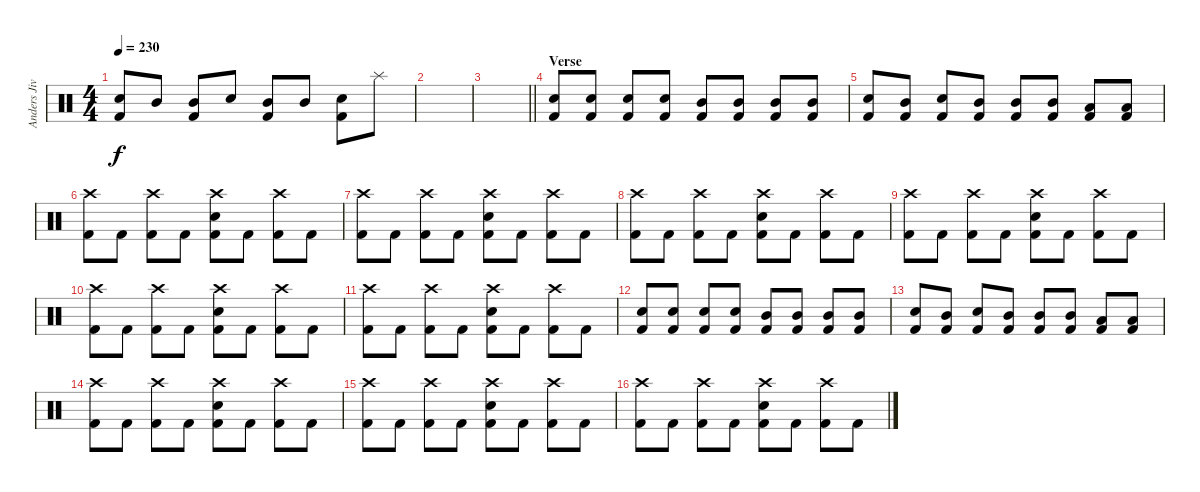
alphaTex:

\track ("Anders Jivarp" "Anders Jiv") {instrument percussion}
\staff {score}
\articulation defaults
\ts (4 4)
\tempo 230
\clef neutral
\ks c
("Kick (hit) 2" "Electric Snare (hit)").8{dy f} "Mid Tom (hit)".8 ("Kick (hit) 2" "Mid Tom (hit)").8 "Electric Snare (hit)".8 ("Kick (hit) 2" "Mid Tom (hit)").8 "Mid Tom (hit)".8 ("Kick (hit) 2" "Electric Snare (hit)").8 "Splash (hit)".8 |
|
\barLineRight lightlight
|
\section ("" "Verse")
("Kick (hit) 2" "Electric Snare (hit)").8 ("Kick (hit) 2" "Electric Snare (hit)").8 ("Kick (hit) 2" "Electric Snare (hit)").8 ("Kick (hit) 2" "Electric Snare (hit)").8 ("Kick (hit) 2" "Mid Tom (hit)").8 ("Kick (hit) 2" "Mid Tom (hit)").8 ("Kick (hit) 2" "Mid Tom (hit)").8 ("Kick (hit) 2" "Mid Tom (hit)").8 |
("Kick (hit) 2" "Electric Snare (hit)").8 ("Kick (hit) 2" "Mid Tom (hit)").8 ("Kick (hit) 2" "Electric Snare (hit)").8 ("Kick (hit) 2" "Mid Tom (hit)").8 ("Kick (hit) 2" "Mid Tom (hit)").8 ("Kick (hit) 2" "Mid Tom (hit)").8 ("Kick (hit) 2" "Low Tom (hit)").8 ("Kick (hit) 2" "Low Tom (hit)").8 |
("Crash high (hit)" "Kick (hit) 2").8 "Kick (hit) 2".8 ("Crash high (hit)" "Kick (hit) 2").8 "Kick (hit) 2".8 ("Crash high (hit)" "Electric Snare (hit)" "Kick (hit) 2").8 "Kick (hit) 2".8 ("Crash high (hit)" "Kick (hit) 2").8 "Kick (hit) 2".8 |
("Crash high (hit)" "Kick (hit) 2").8 "Kick (hit) 2".8 ("Crash high (hit)" "Kick (hit) 2").8 "Kick (hit) 2".8 ("Crash high (hit)" "Electric Snare (hit)" "Kick (hit) 2").8 "Kick (hit) 2".8 ("Crash high (hit)" "Kick (hit) 2").8 "Kick (hit) 2".8 |
("Crash high (hit)" "Kick (hit) 2").8 "Kick (hit) 2".8 ("Crash high (hit)" "Kick (hit) 2").8 "Kick (hit) 2".8 ("Crash high (hit)" "Electric Snare (hit)" "Kick (hit) 2").8 "Kick (hit) 2".8 ("Crash high (hit)" "Kick (hit) 2").8 "Kick (hit) 2".8 |
("Crash high (hit)" "Kick (hit) 2").8 "Kick (hit) 2".8 ("Crash high (hit)" "Kick (hit) 2").8 "Kick (hit) 2".8 ("Crash high (hit)" "Electric Snare (hit)" "Kick (hit) 2").8 "Kick (hit) 2".8 ("Crash high (hit)" "Kick (hit) 2").8 "Kick (hit) 2".8 |
("Crash high (hit)" "Kick (hit) 2").8 "Kick (hit) 2".8 ("Crash high (hit)" "Kick (hit) 2").8 "Kick (hit) 2".8 ("Crash high (hit)" "Electric Snare (hit)" "Kick (hit) 2").8 "Kick (hit) 2".8 ("Crash high (hit)" "Kick (hit) 2").8 "Kick (hit) 2".8 |
("Crash high (hit)" "Kick (hit) 2").8 "Kick (hit) 2".8 ("Crash high (hit)" "Kick (hit) 2").8 "Kick (hit) 2".8 ("Crash high (hit)" "Electric Snare (hit)" "Kick (hit) 2").8 "Kick (hit) 2".8 ("Crash high (hit)" "Kick (hit) 2").8 "Kick (hit) 2".8 |
("Kick (hit) 2" "Electric Snare (hit)").8 ("Kick (hit) 2" "Electric Snare (hit)").8 ("Kick (hit) 2" "Electric Snare (hit)").8 ("Kick (hit) 2" "Electric Snare (hit)").8 ("Kick (hit) 2" "Mid Tom (hit)").8 ("Kick (hit) 2" "Mid Tom (hit)").8 ("Kick (hit) 2" "Mid Tom (hit)").8 ("Kick (hit) 2" "Mid Tom (hit)").8 |
("Kick (hit) 2" "Electric Snare (hit)").8 ("Kick (hit) 2" "Mid Tom (hit)").8 ("Kick (hit) 2" "Electric Snare (hit)").8 ("Kick (hit) 2" "Mid Tom (hit)").8 ("Kick (hit) 2" "Mid Tom (hit)").8 ("Kick (hit) 2" "Mid Tom (hit)").8 ("Kick (hit) 2" "Low Tom (hit)").8 ("Kick (hit) 2" "Low Tom (hit)").8 |
("Crash high (hit)" "Kick (hit) 2").8 "Kick (hit) 2".8 ("Crash high (hit)" "Kick (hit) 2").8 "Kick (hit) 2".8 ("Crash high (hit)" "Electric Snare (hit)" "Kick (hit) 2").8 "Kick (hit) 2".8 ("Crash high (hit)" "Kick (hit) 2").8 "Kick (hit) 2".8 |
("Crash high (hit)" "Kick (hit) 2").8 "Kick (hit) 2".8 ("Crash high (hit)" "Kick (hit) 2").8 "Kick (hit) 2".8 ("Crash high (hit)" "Electric Snare (hit)" "Kick (hit) 2").8 "Kick (hit) 2".8 ("Crash high (hit)" "Kick (hit) 2").8 "Kick (hit) 2".8 |
("Crash high (hit)" "Kick (hit) 2").8 "Kick (hit) 2".8 ("Crash high (hit)" "Kick (hit) 2").8 "Kick (hit) 2".8 ("Crash high (hit)" "Electric Snare (hit)" "Kick (hit) 2").8 "Kick (hit) 2".8 ("Crash high (hit)" "Kick (hit) 2").8 "Kick (hit) 2".8
